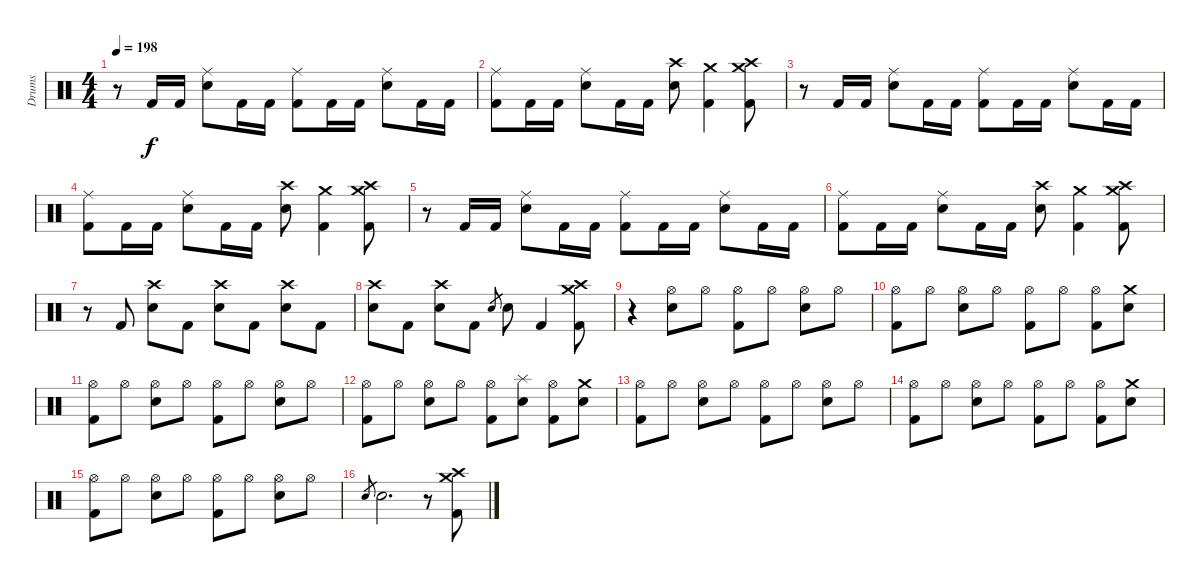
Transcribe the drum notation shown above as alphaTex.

\track ("Drums" "Drums") {instrument percussion}
\staff {score}
\articulation defaults
\ts (4 4)
\tempo 198
\clef neutral
\ks c
r.8{dy f} "Kick (hit) 2".16 "Kick (hit) 2".16 ("Ride (middle)" "Electric Snare (hit)").8 "Kick (hit) 2".16 "Kick (hit) 2".16 ("Ride (middle)" "Kick (hit) 2").8 "Kick (hit) 2".16 "Kick (hit) 2".16 ("Ride (middle)" "Electric Snare (hit)").8 "Kick (hit) 2".16 "Kick (hit) 2".16 |
("Ride (middle)" "Kick (hit) 2").8 "Kick (hit) 2".16 "Kick (hit) 2".16 ("Ride (middle)" "Electric Snare (hit)").8 "Kick (hit) 2".16 "Kick (hit) 2".16 ("Crash high (hit)" "Electric Snare (hit)").8 ("Crash medium (hit)" "Kick (hit) 2").4 ("Crash medium (hit)" "Crash high (hit)" "Kick (hit) 2").8 |
r.8 "Kick (hit) 2".16 "Kick (hit) 2".16 ("Ride (middle)" "Electric Snare (hit)").8 "Kick (hit) 2".16 "Kick (hit) 2".16 ("Ride (middle)" "Kick (hit) 2").8 "Kick (hit) 2".16 "Kick (hit) 2".16 ("Ride (middle)" "Electric Snare (hit)").8 "Kick (hit) 2".16 "Kick (hit) 2".16 |
("Ride (middle)" "Kick (hit) 2").8 "Kick (hit) 2".16 "Kick (hit) 2".16 ("Ride (middle)" "Electric Snare (hit)").8 "Kick (hit) 2".16 "Kick (hit) 2".16 ("Crash high (hit)" "Electric Snare (hit)").8 ("Crash medium (hit)" "Kick (hit) 2").4 ("Crash medium (hit)" "Crash high (hit)" "Kick (hit) 2").8 |
r.8 "Kick (hit) 2".16 "Kick (hit) 2".16 ("Ride (middle)" "Electric Snare (hit)").8 "Kick (hit) 2".16 "Kick (hit) 2".16 ("Ride (middle)" "Kick (hit) 2").8 "Kick (hit) 2".16 "Kick (hit) 2".16 ("Ride (middle)" "Electric Snare (hit)").8 "Kick (hit) 2".16 "Kick (hit) 2".16 |
("Ride (middle)" "Kick (hit) 2").8 "Kick (hit) 2".16 "Kick (hit) 2".16 ("Ride (middle)" "Electric Snare (hit)").8 "Kick (hit) 2".16 "Kick (hit) 2".16 ("Crash high (hit)" "Electric Snare (hit)").8 ("Crash medium (hit)" "Kick (hit) 2").4 ("Crash medium (hit)" "Crash high (hit)" "Kick (hit) 2").8 |
r.8 "Kick (hit) 2".8 ("Crash high (hit)" "Electric Snare (hit)").8 "Kick (hit) 2".8 ("Crash high (hit)" "Electric Snare (hit)").8 "Kick (hit) 2".8 ("Crash high (hit)" "Electric Snare (hit)").8 "Kick (hit) 2".8 |
("Crash high (hit)" "Electric Snare (hit)").8 "Kick (hit) 2".8 ("Crash high (hit)" "Electric Snare (hit)").8 "Kick (hit) 2".8 "Electric Snare (hit)".8{gr} "Electric Snare (hit)".8 "Kick (hit) 2".4 ("Crash medium (hit)" "Crash high (hit)" "Kick (hit) 2").8 |
r.4 ("Hi-Hat (open)" "Electric Snare (hit)").8 "Hi-Hat (open)".8 ("Hi-Hat (open)" "Kick (hit) 2").8 "Hi-Hat (open)".8 ("Hi-Hat (open)" "Electric Snare (hit)").8 "Hi-Hat (open)".8 |
("Hi-Hat (open)" "Kick (hit) 2").8 "Hi-Hat (open)".8 ("Hi-Hat (open)" "Electric Snare (hit)").8 "Hi-Hat (open)".8 ("Hi-Hat (open)" "Kick (hit) 2").8 "Hi-Hat (open)".8 ("Hi-Hat (open)" "Kick (hit) 2").8 ("Crash medium (hit)" "Electric Snare (hit)").8 |
("Hi-Hat (open)" "Kick (hit) 2").8 "Hi-Hat (open)".8 ("Hi-Hat (open)" "Electric Snare (hit)").8 "Hi-Hat (open)".8 ("Hi-Hat (open)" "Kick (hit) 2").8 "Hi-Hat (open)".8 ("Hi-Hat (open)" "Electric Snare (hit)").8 "Hi-Hat (open)".8 |
("Hi-Hat (open)" "Kick (hit) 2").8 "Hi-Hat (open)".8 ("Hi-Hat (open)" "Electric Snare (hit)").8 "Hi-Hat (open)".8 ("Hi-Hat (open)" "Kick (hit) 2").8 ("Splash (hit)" "Electric Snare (hit)").8 ("Hi-Hat (open)" "Kick (hit) 2").8 ("Crash medium (hit)" "Electric Snare (hit)").8 |
("Hi-Hat (open)" "Kick (hit) 2").8 "Hi-Hat (open)".8 ("Hi-Hat (open)" "Electric Snare (hit)").8 "Hi-Hat (open)".8 ("Hi-Hat (open)" "Kick (hit) 2").8 "Hi-Hat (open)".8 ("Hi-Hat (open)" "Electric Snare (hit)").8 "Hi-Hat (open)".8 |
("Hi-Hat (open)" "Kick (hit) 2").8 "Hi-Hat (open)".8 ("Hi-Hat (open)" "Electric Snare (hit)").8 "Hi-Hat (open)".8 ("Hi-Hat (open)" "Kick (hit) 2").8 "Hi-Hat (open)".8 ("Hi-Hat (open)" "Kick (hit) 2").8 ("Crash medium (hit)" "Electric Snare (hit)").8 |
("Hi-Hat (open)" "Kick (hit) 2").8 "Hi-Hat (open)".8 ("Hi-Hat (open)" "Electric Snare (hit)").8 "Hi-Hat (open)".8 ("Hi-Hat (open)" "Kick (hit) 2").8 "Hi-Hat (open)".8 ("Hi-Hat (open)" "Electric Snare (hit)").8 "Hi-Hat (open)".8 |
"Electric Snare (hit)".8{gr} "Electric Snare (hit)".2{d} r.8 ("Crash medium (hit)" "Crash high (hit)" "Kick (hit) 2").8
